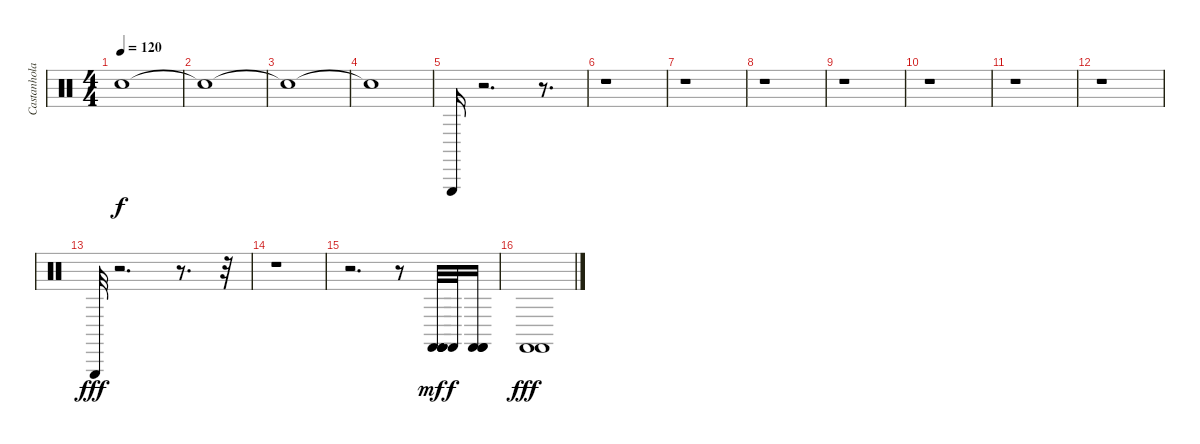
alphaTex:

\track ("Castanholas etc. ïåğêóññèÿ" "Castanhola") {instrument percussion}
\staff {score}
\articulation defaults
\ts (4 4)
\tempo 120
\clef neutral
\ks c "Snare (hit)"{t}.1{dy f}
|
"Snare (hit)"{t}.1 |
"Snare (hit)"{t}.1 |
"Snare (hit)"{t}.1 |
"Triangle (hit)".16 r.2{d} r.8{d} |
r.1 |
r.1 |
r.1 |
r.1 |
r.1 |
r.1 |
r.1 |
"Triangle (hit)".32{dy fff} r.2{d} r.8{d} r.32 |
r.1 |
r.2{d} r.8 ("Castanets (hit)" "Castanets (hit)" "Castanets (hit)" "Castanets (hit)").32{dy mf} "Castanets (hit)".32{dy f} ("Castanets (hit)" "Castanets (hit)" "Castanets (hit)").16 |
("Castanets (hit)" "Castanets (hit)").1{dy fff}
